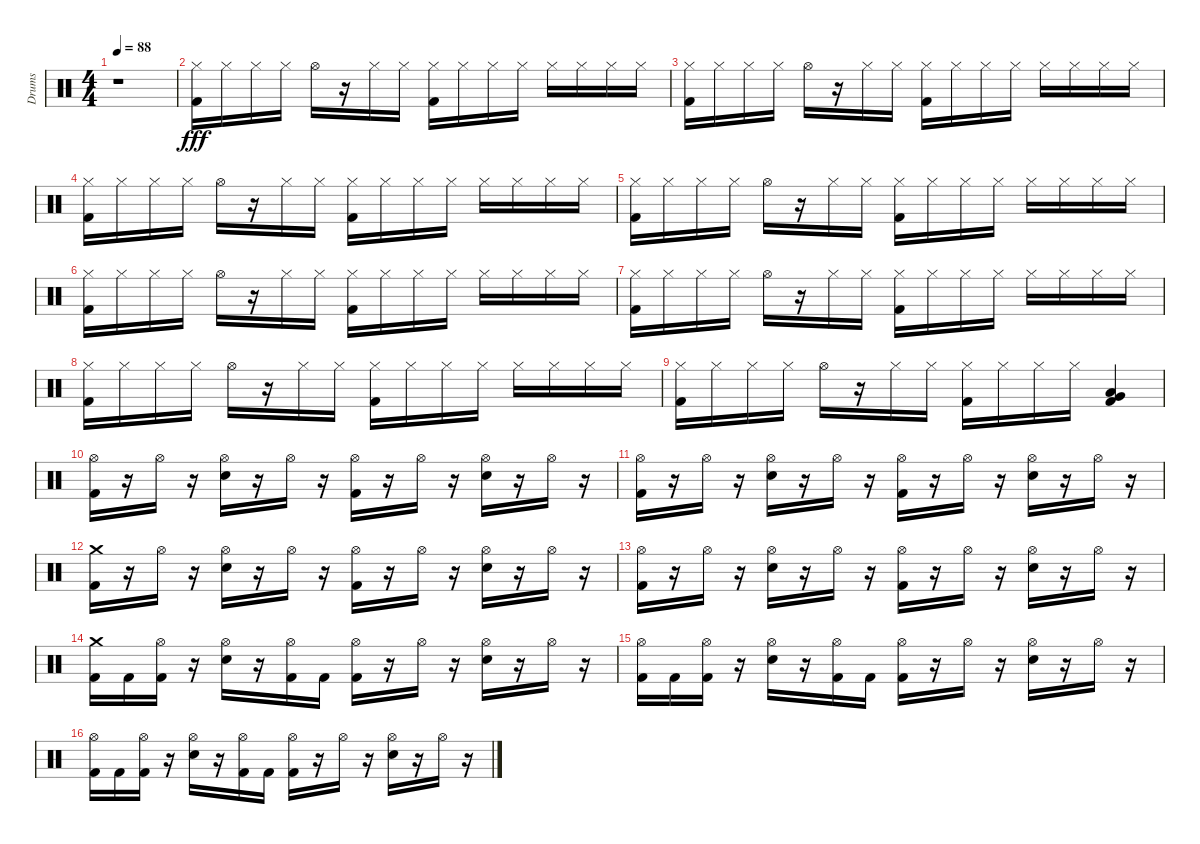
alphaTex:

\track ("Drums" "Drums") {instrument percussion}
\staff {score}
\articulation defaults
\ts (4 4)
\tempo 88
\clef neutral
\ks c
r.1{dy fff} |
("Hi-Hat (closed)" "Kick (hit) 2").16 "Hi-Hat (closed)".16 "Hi-Hat (closed)".16 "Hi-Hat (closed)".16 "Hi-Hat (open)".16 r.16 "Hi-Hat (closed)".16 "Hi-Hat (closed)".16 ("Hi-Hat (closed)" "Kick (hit) 2").16 "Hi-Hat (closed)".16 "Hi-Hat (closed)".16 "Hi-Hat (closed)".16 "Hi-Hat (closed)".16 "Hi-Hat (closed)".16 "Hi-Hat (closed)".16 "Hi-Hat (closed)".16 |
("Kick (hit) 2" "Hi-Hat (closed)").16 "Hi-Hat (closed)".16 "Hi-Hat (closed)".16 "Hi-Hat (closed)".16 "Hi-Hat (open)".16 r.16 "Hi-Hat (closed)".16 "Hi-Hat (closed)".16 ("Kick (hit) 2" "Hi-Hat (closed)").16 "Hi-Hat (closed)".16 "Hi-Hat (closed)".16 "Hi-Hat (closed)".16 "Hi-Hat (closed)".16 "Hi-Hat (closed)".16 "Hi-Hat (closed)".16 "Hi-Hat (closed)".16 |
("Kick (hit) 2" "Hi-Hat (closed)").16 "Hi-Hat (closed)".16 "Hi-Hat (closed)".16 "Hi-Hat (closed)".16 "Hi-Hat (open)".16 r.16 "Hi-Hat (closed)".16 "Hi-Hat (closed)".16 ("Kick (hit) 2" "Hi-Hat (closed)").16 "Hi-Hat (closed)".16 "Hi-Hat (closed)".16 "Hi-Hat (closed)".16 "Hi-Hat (closed)".16 "Hi-Hat (closed)".16 "Hi-Hat (closed)".16 "Hi-Hat (closed)".16 |
("Kick (hit) 2" "Hi-Hat (closed)").16 "Hi-Hat (closed)".16 "Hi-Hat (closed)".16 "Hi-Hat (closed)".16 "Hi-Hat (open)".16 r.16 "Hi-Hat (closed)".16 "Hi-Hat (closed)".16 ("Kick (hit) 2" "Hi-Hat (closed)").16 "Hi-Hat (closed)".16 "Hi-Hat (closed)".16 "Hi-Hat (closed)".16 "Hi-Hat (closed)".16 "Hi-Hat (closed)".16 "Hi-Hat (closed)".16 "Hi-Hat (closed)".16 |
("Kick (hit) 2" "Hi-Hat (closed)").16 "Hi-Hat (closed)".16 "Hi-Hat (closed)".16 "Hi-Hat (closed)".16 "Hi-Hat (open)".16 r.16 "Hi-Hat (closed)".16 "Hi-Hat (closed)".16 ("Kick (hit) 2" "Hi-Hat (closed)").16 "Hi-Hat (closed)".16 "Hi-Hat (closed)".16 "Hi-Hat (closed)".16 "Hi-Hat (closed)".16 "Hi-Hat (closed)".16 "Hi-Hat (closed)".16 "Hi-Hat (closed)".16 |
("Kick (hit) 2" "Hi-Hat (closed)").16 "Hi-Hat (closed)".16 "Hi-Hat (closed)".16 "Hi-Hat (closed)".16 "Hi-Hat (open)".16 r.16 "Hi-Hat (closed)".16 "Hi-Hat (closed)".16 ("Kick (hit) 2" "Hi-Hat (closed)").16 "Hi-Hat (closed)".16 "Hi-Hat (closed)".16 "Hi-Hat (closed)".16 "Hi-Hat (closed)".16 "Hi-Hat (closed)".16 "Hi-Hat (closed)".16 "Hi-Hat (closed)".16 |
("Kick (hit) 2" "Hi-Hat (closed)").16 "Hi-Hat (closed)".16 "Hi-Hat (closed)".16 "Hi-Hat (closed)".16 "Hi-Hat (open)".16 r.16 "Hi-Hat (closed)".16 "Hi-Hat (closed)".16 ("Kick (hit) 2" "Hi-Hat (closed)").16 "Hi-Hat (closed)".16 "Hi-Hat (closed)".16 "Hi-Hat (closed)".16 "Hi-Hat (closed)".16 "Hi-Hat (closed)".16 "Hi-Hat (closed)".16 "Hi-Hat (closed)".16 |
("Kick (hit) 2" "Hi-Hat (closed)").16 "Hi-Hat (closed)".16 "Hi-Hat (closed)".16 "Hi-Hat (closed)".16 "Hi-Hat (open)".16 r.16 "Hi-Hat (closed)".16 "Hi-Hat (closed)".16 ("Kick (hit) 2" "Hi-Hat (closed)").16 "Hi-Hat (closed)".16 "Hi-Hat (closed)".16 "Hi-Hat (closed)".16 ("Kick (hit) 2" "Very Low Tom (hit)" "Low Tom (hit)").4 |
("Kick (hit) 2" "Hi-Hat (open)").16 r.16 "Hi-Hat (open)".16 r.16 ("Electric Snare (hit)" "Hi-Hat (open)").16 r.16 "Hi-Hat (open)".16 r.16 ("Kick (hit) 2" "Hi-Hat (open)").16 r.16 "Hi-Hat (open)".16 r.16 ("Electric Snare (hit)" "Hi-Hat (open)").16 r.16 "Hi-Hat (open)".16 r.16 |
("Kick (hit) 2" "Hi-Hat (open)").16 r.16 "Hi-Hat (open)".16 r.16 ("Electric Snare (hit)" "Hi-Hat (open)").16 r.16 "Hi-Hat (open)".16 r.16 ("Kick (hit) 2" "Hi-Hat (open)").16 r.16 "Hi-Hat (open)".16 r.16 ("Electric Snare (hit)" "Hi-Hat (open)").16 r.16 "Hi-Hat (open)".16 r.16 |
("Kick (hit) 2" "Crash medium (hit)").16 r.16 "Hi-Hat (open)".16 r.16 ("Electric Snare (hit)" "Hi-Hat (open)").16 r.16 "Hi-Hat (open)".16 r.16 ("Kick (hit) 2" "Hi-Hat (open)").16 r.16 "Hi-Hat (open)".16 r.16 ("Electric Snare (hit)" "Hi-Hat (open)").16 r.16 "Hi-Hat (open)".16 r.16 |
("Kick (hit) 2" "Hi-Hat (open)").16 r.16 "Hi-Hat (open)".16 r.16 ("Electric Snare (hit)" "Hi-Hat (open)").16 r.16 "Hi-Hat (open)".16 r.16 ("Kick (hit) 2" "Hi-Hat (open)").16 r.16 "Hi-Hat (open)".16 r.16 ("Electric Snare (hit)" "Hi-Hat (open)").16 r.16 "Hi-Hat (open)".16 r.16 |
("Crash medium (hit)" "Kick (hit) 2").16 "Kick (hit) 2".16 ("Kick (hit) 2" "Hi-Hat (open)").16 r.16 ("Hi-Hat (open)" "Electric Snare (hit)").16 r.16 ("Kick (hit) 2" "Hi-Hat (open)").16 "Kick (hit) 2".16 ("Kick (hit) 2" "Hi-Hat (open)").16 r.16 "Hi-Hat (open)".16 r.16 ("Electric Snare (hit)" "Hi-Hat (open)").16 r.16 "Hi-Hat (open)".16 r.16 |
("Hi-Hat (open)" "Kick (hit) 2").16 "Kick (hit) 2".16 ("Kick (hit) 2" "Hi-Hat (open)").16 r.16 ("Hi-Hat (open)" "Electric Snare (hit)").16 r.16 ("Kick (hit) 2" "Hi-Hat (open)").16 "Kick (hit) 2".16 ("Kick (hit) 2" "Hi-Hat (open)").16 r.16 "Hi-Hat (open)".16 r.16 ("Electric Snare (hit)" "Hi-Hat (open)").16 r.16 "Hi-Hat (open)".16 r.16 |
("Hi-Hat (open)" "Kick (hit) 2").16 "Kick (hit) 2".16 ("Kick (hit) 2" "Hi-Hat (open)").16 r.16 ("Hi-Hat (open)" "Electric Snare (hit)").16 r.16 ("Kick (hit) 2" "Hi-Hat (open)").16 "Kick (hit) 2".16 ("Kick (hit) 2" "Hi-Hat (open)").16 r.16 "Hi-Hat (open)".16 r.16 ("Electric Snare (hit)" "Hi-Hat (open)").16 r.16 "Hi-Hat (open)".16 r.16
